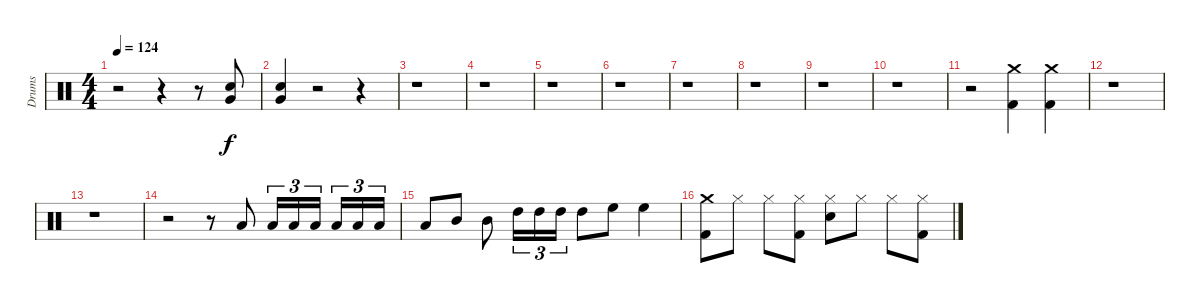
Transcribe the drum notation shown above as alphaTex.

\track ("Drums" "Drums") {instrument percussion}
\staff {score}
\articulation defaults
\ts (4 4)
\tempo 124
\clef neutral
\ks c
r.2{dy f} r.4 r.8 ("Snare (hit) 2" "Very Low Tom (hit)").8 |
("Snare (hit) 2" "Very Low Tom (hit)").4 r.2 r.4 |
r.1 |
r.1 |
r.1 |
r.1 |
r.1 |
r.1 |
r.1 |
r.1 |
r.2 ("Crash medium (hit)" "Kick (hit) 2").4 ("Crash medium (hit)" "Kick (hit) 2").4 |
r.1 |
r.1 |
r.2 r.8 "Low Tom (hit)".8 "Low Tom (hit)".16{tu (3 2)} "Low Tom (hit)".16{tu (3 2)} "Low Tom (hit)".16{tu (3 2)} "Low Tom (hit)".16{tu (3 2)} "Low Tom (hit)".16{tu (3 2)} "Low Tom (hit)".16{tu (3 2)} |
"Low Tom (hit)".8 "Mid Tom (hit)".8 "Mid Tom (hit)".8 "High Tom (hit)".16{tu (3 2)} "High Tom (hit)".16{tu (3 2)} "High Tom (hit)".16{tu (3 2)} "High Tom (hit)".8 "High Floor Tom (hit)".8 "High Floor Tom (hit)".4 |
("Crash medium (hit)" "Kick (hit) 2").8 "Hi-Hat (closed)".8 "Hi-Hat (closed)".8 ("Kick (hit) 2" "Hi-Hat (closed)").8 ("Snare (hit) 2" "Hi-Hat (closed)").8 "Hi-Hat (closed)".8 "Hi-Hat (closed)".8 ("Kick (hit) 2" "Hi-Hat (closed)").8
